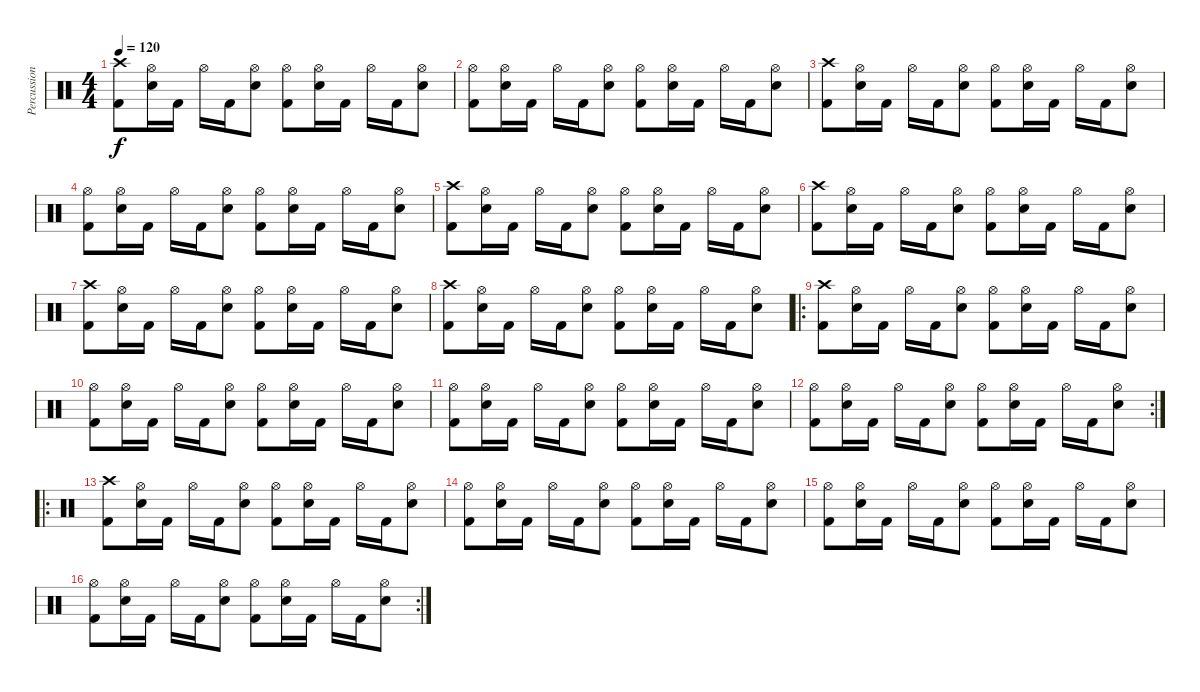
\track ("Percussion" "Percussion") {instrument percussion}
\staff {score}
\articulation defaults
\ts (4 4)
\tempo 120
\clef neutral
\ks c
("Crash high (hit)" "Kick (hit) 2").8{dy f} ("Hi-Hat (open)" "Snare (hit) 2").16 "Kick (hit) 2".16 "Hi-Hat (open)".16 "Kick (hit) 2".16 ("Hi-Hat (open)" "Snare (hit) 2").8 ("Hi-Hat (open)" "Kick (hit) 2").8 ("Hi-Hat (open)" "Snare (hit) 2").16 "Kick (hit) 2".16 "Hi-Hat (open)".16 "Kick (hit) 2".16 ("Hi-Hat (open)" "Snare (hit) 2").8 |
("Hi-Hat (open)" "Kick (hit) 2").8 ("Hi-Hat (open)" "Snare (hit) 2").16 "Kick (hit) 2".16 "Hi-Hat (open)".16 "Kick (hit) 2".16 ("Hi-Hat (open)" "Snare (hit) 2").8 ("Hi-Hat (open)" "Kick (hit) 2").8 ("Hi-Hat (open)" "Snare (hit) 2").16 "Kick (hit) 2".16 "Hi-Hat (open)".16 "Kick (hit) 2".16 ("Hi-Hat (open)" "Snare (hit) 2").8 |
("Crash high (hit)" "Kick (hit) 2").8 ("Hi-Hat (open)" "Snare (hit) 2").16 "Kick (hit) 2".16 "Hi-Hat (open)".16 "Kick (hit) 2".16 ("Hi-Hat (open)" "Snare (hit) 2").8 ("Hi-Hat (open)" "Kick (hit) 2").8 ("Hi-Hat (open)" "Snare (hit) 2").16 "Kick (hit) 2".16 "Hi-Hat (open)".16 "Kick (hit) 2".16 ("Hi-Hat (open)" "Snare (hit) 2").8 |
("Hi-Hat (open)" "Kick (hit) 2").8 ("Hi-Hat (open)" "Snare (hit) 2").16 "Kick (hit) 2".16 "Hi-Hat (open)".16 "Kick (hit) 2".16 ("Hi-Hat (open)" "Snare (hit) 2").8 ("Hi-Hat (open)" "Kick (hit) 2").8 ("Hi-Hat (open)" "Snare (hit) 2").16 "Kick (hit) 2".16 "Hi-Hat (open)".16 "Kick (hit) 2".16 ("Hi-Hat (open)" "Snare (hit) 2").8 |
("Crash high (hit)" "Kick (hit) 2").8 ("Hi-Hat (open)" "Snare (hit) 2").16 "Kick (hit) 2".16 "Hi-Hat (open)".16 "Kick (hit) 2".16 ("Hi-Hat (open)" "Snare (hit) 2").8 ("Hi-Hat (open)" "Kick (hit) 2").8 ("Hi-Hat (open)" "Snare (hit) 2").16 "Kick (hit) 2".16 "Hi-Hat (open)".16 "Kick (hit) 2".16 ("Hi-Hat (open)" "Snare (hit) 2").8 |
("Crash high (hit)" "Kick (hit) 2").8 ("Hi-Hat (open)" "Snare (hit) 2").16 "Kick (hit) 2".16 "Hi-Hat (open)".16 "Kick (hit) 2".16 ("Hi-Hat (open)" "Snare (hit) 2").8 ("Hi-Hat (open)" "Kick (hit) 2").8 ("Hi-Hat (open)" "Snare (hit) 2").16 "Kick (hit) 2".16 "Hi-Hat (open)".16 "Kick (hit) 2".16 ("Hi-Hat (open)" "Snare (hit) 2").8 |
("Crash high (hit)" "Kick (hit) 2").8 ("Hi-Hat (open)" "Snare (hit) 2").16 "Kick (hit) 2".16 "Hi-Hat (open)".16 "Kick (hit) 2".16 ("Hi-Hat (open)" "Snare (hit) 2").8 ("Hi-Hat (open)" "Kick (hit) 2").8 ("Hi-Hat (open)" "Snare (hit) 2").16 "Kick (hit) 2".16 "Hi-Hat (open)".16 "Kick (hit) 2".16 ("Hi-Hat (open)" "Snare (hit) 2").8 |
("Crash high (hit)" "Kick (hit) 2").8 ("Hi-Hat (open)" "Snare (hit) 2").16 "Kick (hit) 2".16 "Hi-Hat (open)".16 "Kick (hit) 2".16 ("Hi-Hat (open)" "Snare (hit) 2").8 ("Hi-Hat (open)" "Kick (hit) 2").8 ("Hi-Hat (open)" "Snare (hit) 2").16 "Kick (hit) 2".16 "Hi-Hat (open)".16 "Kick (hit) 2".16 ("Hi-Hat (open)" "Snare (hit) 2").8 |
\ro
("Crash high (hit)" "Kick (hit) 2").8 ("Hi-Hat (open)" "Snare (hit) 2").16 "Kick (hit) 2".16 "Hi-Hat (open)".16 "Kick (hit) 2".16 ("Hi-Hat (open)" "Snare (hit) 2").8 ("Hi-Hat (open)" "Kick (hit) 2").8 ("Hi-Hat (open)" "Snare (hit) 2").16 "Kick (hit) 2".16 "Hi-Hat (open)".16 "Kick (hit) 2".16 ("Hi-Hat (open)" "Snare (hit) 2").8 |
("Hi-Hat (open)" "Kick (hit) 2").8 ("Hi-Hat (open)" "Snare (hit) 2").16 "Kick (hit) 2".16 "Hi-Hat (open)".16 "Kick (hit) 2".16 ("Hi-Hat (open)" "Snare (hit) 2").8 ("Hi-Hat (open)" "Kick (hit) 2").8 ("Hi-Hat (open)" "Snare (hit) 2").16 "Kick (hit) 2".16 "Hi-Hat (open)".16 "Kick (hit) 2".16 ("Hi-Hat (open)" "Snare (hit) 2").8 |
("Hi-Hat (open)" "Kick (hit) 2").8 ("Hi-Hat (open)" "Snare (hit) 2").16 "Kick (hit) 2".16 "Hi-Hat (open)".16 "Kick (hit) 2".16 ("Hi-Hat (open)" "Snare (hit) 2").8 ("Hi-Hat (open)" "Kick (hit) 2").8 ("Hi-Hat (open)" "Snare (hit) 2").16 "Kick (hit) 2".16 "Hi-Hat (open)".16 "Kick (hit) 2".16 ("Hi-Hat (open)" "Snare (hit) 2").8 |
\rc 2
("Hi-Hat (open)" "Kick (hit) 2").8 ("Hi-Hat (open)" "Snare (hit) 2").16 "Kick (hit) 2".16 "Hi-Hat (open)".16 "Kick (hit) 2".16 ("Hi-Hat (open)" "Snare (hit) 2").8 ("Hi-Hat (open)" "Kick (hit) 2").8 ("Hi-Hat (open)" "Snare (hit) 2").16 "Kick (hit) 2".16 "Hi-Hat (open)".16 "Kick (hit) 2".16 ("Hi-Hat (open)" "Snare (hit) 2").8 |
\ro
("Crash high (hit)" "Kick (hit) 2").8 ("Hi-Hat (open)" "Snare (hit) 2").16 "Kick (hit) 2".16 "Hi-Hat (open)".16 "Kick (hit) 2".16 ("Hi-Hat (open)" "Snare (hit) 2").8 ("Hi-Hat (open)" "Kick (hit) 2").8 ("Hi-Hat (open)" "Snare (hit) 2").16 "Kick (hit) 2".16 "Hi-Hat (open)".16 "Kick (hit) 2".16 ("Hi-Hat (open)" "Snare (hit) 2").8 |
("Hi-Hat (open)" "Kick (hit) 2").8 ("Hi-Hat (open)" "Snare (hit) 2").16 "Kick (hit) 2".16 "Hi-Hat (open)".16 "Kick (hit) 2".16 ("Hi-Hat (open)" "Snare (hit) 2").8 ("Hi-Hat (open)" "Kick (hit) 2").8 ("Hi-Hat (open)" "Snare (hit) 2").16 "Kick (hit) 2".16 "Hi-Hat (open)".16 "Kick (hit) 2".16 ("Hi-Hat (open)" "Snare (hit) 2").8 |
("Hi-Hat (open)" "Kick (hit) 2").8 ("Hi-Hat (open)" "Snare (hit) 2").16 "Kick (hit) 2".16 "Hi-Hat (open)".16 "Kick (hit) 2".16 ("Hi-Hat (open)" "Snare (hit) 2").8 ("Hi-Hat (open)" "Kick (hit) 2").8 ("Hi-Hat (open)" "Snare (hit) 2").16 "Kick (hit) 2".16 "Hi-Hat (open)".16 "Kick (hit) 2".16 ("Hi-Hat (open)" "Snare (hit) 2").8 |
\rc 2
("Hi-Hat (open)" "Kick (hit) 2").8 ("Hi-Hat (open)" "Snare (hit) 2").16 "Kick (hit) 2".16 "Hi-Hat (open)".16 "Kick (hit) 2".16 ("Hi-Hat (open)" "Snare (hit) 2").8 ("Hi-Hat (open)" "Kick (hit) 2").8 ("Hi-Hat (open)" "Snare (hit) 2").16 "Kick (hit) 2".16 "Hi-Hat (open)".16 "Kick (hit) 2".16 ("Hi-Hat (open)" "Snare (hit) 2").8
